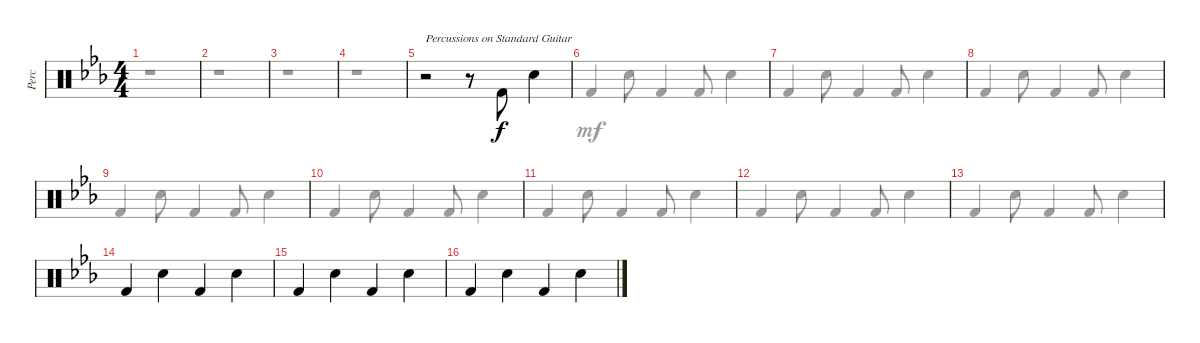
\defaultSystemsLayout 4
\bracketExtendMode groupsimilarinstruments
\otherSystemsTrackNameOrientation horizontal
\track ("Percussions" "Perc") {instrument percussion}
\staff {score}
\articulation defaults
\voice
\ts (4 4)
\tempo (140 hide)
\clef neutral
\ks cminor
|
|
|
|
r.2{txt "Percussions on Standard Guitar" beam Down} r.8{beam Down} "Kick (hit) 2"{acc forcenatural}.8{beam Up} "Snare (hit) 2"{acc forcenatural}.4{beam Down} |
|
|
|
|
|
|
|
|
"Kick (hit) 2"{acc forcenatural}.4{beam Up} "Snare (hit) 2"{acc forcenatural}.4{beam Down} "Kick (hit) 2"{acc forcenatural}.4{beam Up} "Snare (hit) 2"{acc forcenatural}.4{beam Down} |
"Kick (hit) 2"{acc forcenatural}.4{beam Up} "Snare (hit) 2"{acc forcenatural}.4{beam Down} "Kick (hit) 2"{acc forcenatural}.4{beam Up} "Snare (hit) 2"{acc forcenatural}.4{beam Down} |
"Kick (hit) 2"{acc forcenatural}.4{beam Up} "Snare (hit) 2"{acc forcenatural}.4{beam Down} "Kick (hit) 2"{acc forcenatural}.4{beam Up} "Snare (hit) 2"{acc forcenatural}.4{beam Down}
\voice
\clef neutral
\ottava regular
\simile none
\ks cminor
r.1{dy mf beam Down} |
r.1{beam Down} |
r.1{beam Down} |
r.1{beam Down} |
|
"Kick (hit) 2"{acc forcenatural}.4{beam Up} "Snare (hit) 2"{acc forcenatural}.8{beam Down} "Kick (hit) 2"{acc forcenatural}.4{beam Up} "Kick (hit) 2"{acc forcenatural}.8{beam Up} "Snare (hit) 2"{acc forcenatural}.4{beam Down} |
"Kick (hit) 2"{acc forcenatural}.4{beam Up} "Snare (hit) 2"{acc forcenatural}.8{beam Down} "Kick (hit) 2"{acc forcenatural}.4{beam Up} "Kick (hit) 2"{acc forcenatural}.8{beam Up} "Snare (hit) 2"{acc forcenatural}.4{beam Down} |
"Kick (hit) 2"{acc forcenatural}.4{beam Up} "Snare (hit) 2"{acc forcenatural}.8{beam Down} "Kick (hit) 2"{acc forcenatural}.4{beam Up} "Kick (hit) 2"{acc forcenatural}.8{beam Up} "Snare (hit) 2"{acc forcenatural}.4{beam Down} |
"Kick (hit) 2"{acc forcenatural}.4{beam Up} "Snare (hit) 2"{acc forcenatural}.8{beam Down} "Kick (hit) 2"{acc forcenatural}.4{beam Up} "Kick (hit) 2"{acc forcenatural}.8{beam Up} "Snare (hit) 2"{acc forcenatural}.4{beam Down} |
"Kick (hit) 2"{acc forcenatural}.4{beam Up} "Snare (hit) 2"{acc forcenatural}.8{beam Down} "Kick (hit) 2"{acc forcenatural}.4{beam Up} "Kick (hit) 2"{acc forcenatural}.8{beam Up} "Snare (hit) 2"{acc forcenatural}.4{beam Down} |
"Kick (hit) 2"{acc forcenatural}.4{beam Up} "Snare (hit) 2"{acc forcenatural}.8{beam Down} "Kick (hit) 2"{acc forcenatural}.4{beam Up} "Kick (hit) 2"{acc forcenatural}.8{beam Up} "Snare (hit) 2"{acc forcenatural}.4{beam Down} |
"Kick (hit) 2"{acc forcenatural}.4{beam Up} "Snare (hit) 2"{acc forcenatural}.8{beam Down} "Kick (hit) 2"{acc forcenatural}.4{beam Up} "Kick (hit) 2"{acc forcenatural}.8{beam Up} "Snare (hit) 2"{acc forcenatural}.4{beam Down} |
"Kick (hit) 2"{acc forcenatural}.4{beam Up} "Snare (hit) 2"{acc forcenatural}.8{beam Down} "Kick (hit) 2"{acc forcenatural}.4{beam Up} "Kick (hit) 2"{acc forcenatural}.8{beam Up} "Snare (hit) 2"{acc forcenatural}.4{beam Down} |
|
|
